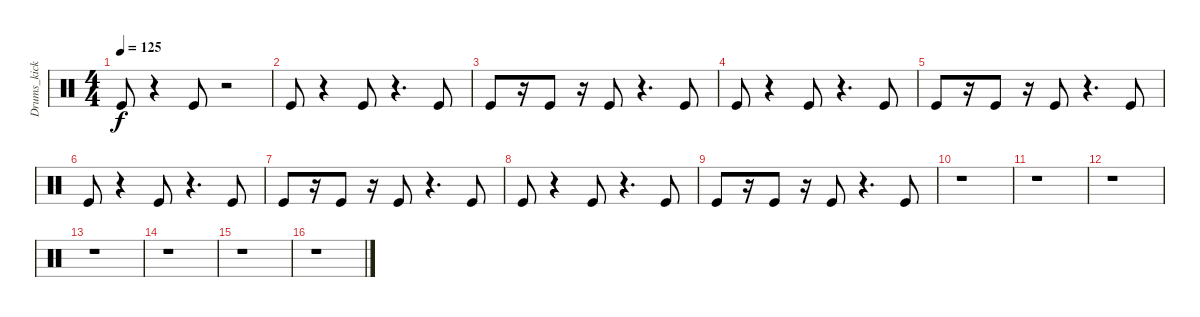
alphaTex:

\track ("Drums_kick" "Drums_kick") {instrument percussion}
\staff {score}
\articulation defaults
\ts (4 4)
\tempo 125
\clef neutral
\ks c "Kick (hit)".8{dy f}
r.4 "Kick (hit)".8 r.2 |
"Kick (hit)".8 r.4 "Kick (hit)".8 r.4{d} "Kick (hit)".8 |
"Kick (hit)".8 r.16 "Kick (hit)".8 r.16 "Kick (hit)".8 r.4{d} "Kick (hit)".8 |
"Kick (hit)".8 r.4 "Kick (hit)".8 r.4{d} "Kick (hit)".8 |
"Kick (hit)".8 r.16 "Kick (hit)".8 r.16 "Kick (hit)".8 r.4{d} "Kick (hit)".8 |
"Kick (hit)".8 r.4 "Kick (hit)".8 r.4{d} "Kick (hit)".8 |
"Kick (hit)".8 r.16 "Kick (hit)".8 r.16 "Kick (hit)".8 r.4{d} "Kick (hit)".8 |
"Kick (hit)".8 r.4 "Kick (hit)".8 r.4{d} "Kick (hit)".8 |
"Kick (hit)".8 r.16 "Kick (hit)".8 r.16 "Kick (hit)".8 r.4{d} "Kick (hit)".8 |
r.1 |
r.1 |
r.1 |
r.1 |
r.1 |
r.1 |
r.1
